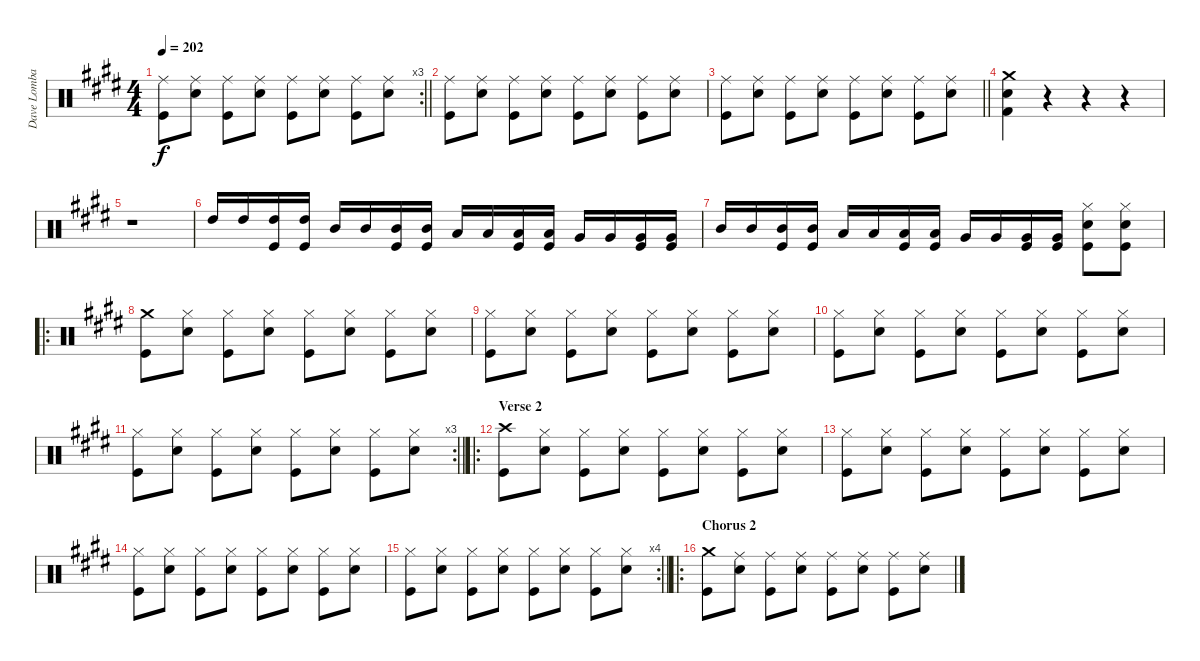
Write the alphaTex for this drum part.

\track ("Dave Lombardo" "Dave Lomba") {instrument percussion}
\staff {score}
\articulation defaults
\rc 3
\ts (4 4)
\tempo 202
\clef neutral
\barLineRight lightlight
\ks e
("Ride (middle)" "Kick (hit)").8{dy f} ("Ride (middle)" "Snare (hit) 2").8 ("Ride (middle)" "Kick (hit)").8 ("Ride (middle)" "Snare (hit) 2").8 ("Ride (middle)" "Kick (hit)").8 ("Ride (middle)" "Snare (hit) 2").8 ("Ride (middle)" "Kick (hit)").8 ("Ride (middle)" "Snare (hit) 2").8 |
("Ride (middle)" "Kick (hit)").8 ("Ride (middle)" "Snare (hit) 2").8 ("Ride (middle)" "Kick (hit)").8 ("Ride (middle)" "Snare (hit) 2").8 ("Ride (middle)" "Kick (hit)").8 ("Ride (middle)" "Snare (hit) 2").8 ("Ride (middle)" "Kick (hit)").8 ("Ride (middle)" "Snare (hit) 2").8 |
\barLineRight lightlight
("Ride (middle)" "Kick (hit)").8 ("Ride (middle)" "Snare (hit) 2").8 ("Ride (middle)" "Kick (hit)").8 ("Ride (middle)" "Snare (hit) 2").8 ("Ride (middle)" "Kick (hit)").8 ("Ride (middle)" "Snare (hit) 2").8 ("Ride (middle)" "Kick (hit)").8 ("Ride (middle)" "Snare (hit) 2").8 |
("Crash medium (hit)" "Electric Snare (hit)" "Kick (hit) 2").4 r.4 r.4 r.4 |
r.1 |
"High Tom (hit)".16 "High Tom (hit)".16 ("High Tom (hit)" "Kick (hit)").16 ("High Tom (hit)" "Kick (hit)").16 "Mid Tom (hit)".16 "Mid Tom (hit)".16 ("Mid Tom (hit)" "Kick (hit)").16 ("Mid Tom (hit)" "Kick (hit)").16 "Low Tom (hit)".16 "Low Tom (hit)".16 ("Low Tom (hit)" "Kick (hit)").16 ("Low Tom (hit)" "Kick (hit)").16 "Very Low Tom (hit)".16 "Very Low Tom (hit)".16 ("Very Low Tom (hit)" "Kick (hit)").16 ("Very Low Tom (hit)" "Kick (hit)").16 |
"Mid Tom (hit)".16 "Mid Tom (hit)".16 ("Mid Tom (hit)" "Kick (hit)").16 ("Mid Tom (hit)" "Kick (hit)").16 "Low Tom (hit)".16 "Low Tom (hit)".16 ("Low Tom (hit)" "Kick (hit)").16 ("Low Tom (hit)" "Kick (hit)").16 "Very Low Tom (hit)".16 "Very Low Tom (hit)".16 ("Very Low Tom (hit)" "Kick (hit)").16 ("Very Low Tom (hit)" "Kick (hit)").16 ("Hi-Hat (closed)" "Snare (hit) 2" "Kick (hit)").8 ("Hi-Hat (closed)" "Snare (hit) 2" "Kick (hit)").8 |
\ro
("Crash medium (hit)" "Kick (hit)").8 ("Hi-Hat (closed)" "Snare (hit) 2").8 ("Hi-Hat (closed)" "Kick (hit)").8 ("Hi-Hat (closed)" "Snare (hit) 2").8 ("Hi-Hat (closed)" "Kick (hit)").8 ("Hi-Hat (closed)" "Snare (hit) 2").8 ("Hi-Hat (closed)" "Kick (hit)").8 ("Hi-Hat (closed)" "Snare (hit) 2").8 |
("Hi-Hat (closed)" "Kick (hit)").8 ("Hi-Hat (closed)" "Snare (hit) 2").8 ("Hi-Hat (closed)" "Kick (hit)").8 ("Hi-Hat (closed)" "Snare (hit) 2").8 ("Hi-Hat (closed)" "Kick (hit)").8 ("Hi-Hat (closed)" "Snare (hit) 2").8 ("Hi-Hat (closed)" "Kick (hit)").8 ("Hi-Hat (closed)" "Snare (hit) 2").8 |
("Hi-Hat (closed)" "Kick (hit)").8 ("Hi-Hat (closed)" "Snare (hit) 2").8 ("Hi-Hat (closed)" "Kick (hit)").8 ("Hi-Hat (closed)" "Snare (hit) 2").8 ("Hi-Hat (closed)" "Kick (hit)").8 ("Hi-Hat (closed)" "Snare (hit) 2").8 ("Hi-Hat (closed)" "Kick (hit)").8 ("Hi-Hat (closed)" "Snare (hit) 2").8 |
\rc 3
\barLineRight lightlight
("Hi-Hat (closed)" "Kick (hit)").8 ("Hi-Hat (closed)" "Snare (hit) 2").8 ("Hi-Hat (closed)" "Kick (hit)").8 ("Hi-Hat (closed)" "Snare (hit) 2").8 ("Hi-Hat (closed)" "Kick (hit)").8 ("Hi-Hat (closed)" "Snare (hit) 2").8 ("Hi-Hat (closed)" "Kick (hit)").8 ("Hi-Hat (closed)" "Snare (hit) 2").8 |
\ro
\section ("" "Verse 2")
("Crash high (hit)" "Kick (hit)").8 ("Hi-Hat (closed)" "Snare (hit) 2").8 ("Hi-Hat (closed)" "Kick (hit)").8 ("Hi-Hat (closed)" "Snare (hit) 2").8 ("Hi-Hat (closed)" "Kick (hit)").8 ("Hi-Hat (closed)" "Snare (hit) 2").8 ("Hi-Hat (closed)" "Kick (hit)").8 ("Hi-Hat (closed)" "Snare (hit) 2").8 |
("Hi-Hat (closed)" "Kick (hit)").8 ("Hi-Hat (closed)" "Snare (hit) 2").8 ("Hi-Hat (closed)" "Kick (hit)").8 ("Hi-Hat (closed)" "Snare (hit) 2").8 ("Hi-Hat (closed)" "Kick (hit)").8 ("Hi-Hat (closed)" "Snare (hit) 2").8 ("Hi-Hat (closed)" "Kick (hit)").8 ("Hi-Hat (closed)" "Snare (hit) 2").8 |
("Hi-Hat (closed)" "Kick (hit)").8 ("Hi-Hat (closed)" "Snare (hit) 2").8 ("Hi-Hat (closed)" "Kick (hit)").8 ("Hi-Hat (closed)" "Snare (hit) 2").8 ("Hi-Hat (closed)" "Kick (hit)").8 ("Hi-Hat (closed)" "Snare (hit) 2").8 ("Hi-Hat (closed)" "Kick (hit)").8 ("Hi-Hat (closed)" "Snare (hit) 2").8 |
\rc 4
\barLineRight lightlight
("Hi-Hat (closed)" "Kick (hit)").8 ("Hi-Hat (closed)" "Snare (hit) 2").8 ("Hi-Hat (closed)" "Kick (hit)").8 ("Hi-Hat (closed)" "Snare (hit) 2").8 ("Hi-Hat (closed)" "Kick (hit)").8 ("Hi-Hat (closed)" "Snare (hit) 2").8 ("Hi-Hat (closed)" "Kick (hit)").8 ("Hi-Hat (closed)" "Snare (hit) 2").8 |
\ro
\section ("" "Chorus 2")
("Crash medium (hit)" "Kick (hit)").8 ("Ride (middle)" "Snare (hit) 2").8 ("Ride (middle)" "Kick (hit)").8 ("Ride (middle)" "Snare (hit) 2").8 ("Ride (middle)" "Kick (hit)").8 ("Ride (middle)" "Snare (hit) 2").8 ("Ride (middle)" "Kick (hit)").8 ("Ride (middle)" "Snare (hit) 2").8
